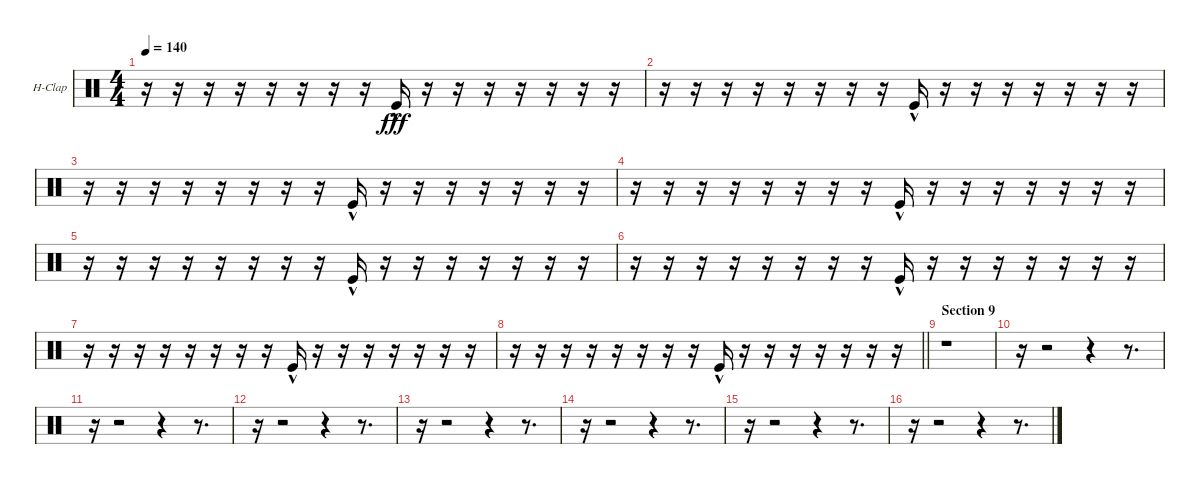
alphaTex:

\bracketExtendMode groupsimilarinstruments
\firstSystemTrackNameOrientation horizontal
\otherSystemsTrackNameOrientation horizontal
\track ("Hand Clap" "H-Clap") {instrument percussion}
\staff {score}
\articulation defaults
\ts (4 4)
\tempo 140
\clef neutral
\ks c
r.16{dy fff} r.16 r.16 r.16 r.16 r.16 r.16 r.16 "Kick (hit)"{hac}.16 r.16 r.16 r.16 r.16 r.16 r.16 r.16 |
r.16 r.16 r.16 r.16 r.16 r.16 r.16 r.16 "Kick (hit)"{hac}.16 r.16 r.16 r.16 r.16 r.16 r.16 r.16 |
r.16 r.16 r.16 r.16 r.16 r.16 r.16 r.16 "Kick (hit)"{hac}.16 r.16 r.16 r.16 r.16 r.16 r.16 r.16 |
r.16 r.16 r.16 r.16 r.16 r.16 r.16 r.16 "Kick (hit)"{hac}.16 r.16 r.16 r.16 r.16 r.16 r.16 r.16 |
r.16 r.16 r.16 r.16 r.16 r.16 r.16 r.16 "Kick (hit)"{hac}.16 r.16 r.16 r.16 r.16 r.16 r.16 r.16 |
r.16 r.16 r.16 r.16 r.16 r.16 r.16 r.16 "Kick (hit)"{hac}.16 r.16 r.16 r.16 r.16 r.16 r.16 r.16 |
r.16 r.16 r.16 r.16 r.16 r.16 r.16 r.16 "Kick (hit)"{hac}.16 r.16 r.16 r.16 r.16 r.16 r.16 r.16 |
\barLineRight lightlight
r.16 r.16 r.16 r.16 r.16 r.16 r.16 r.16 "Kick (hit)"{hac}.16 r.16 r.16 r.16 r.16 r.16 r.16 r.16 |
\section ("" "Section 9")
r.1 |
r.16 r.2 r.4 r.8{d} |
r.16 r.2 r.4 r.8{d} |
r.16 r.2 r.4 r.8{d} |
r.16 r.2 r.4 r.8{d} |
r.16 r.2 r.4 r.8{d} |
r.16 r.2 r.4 r.8{d} |
r.16 r.2 r.4 r.8{d}
